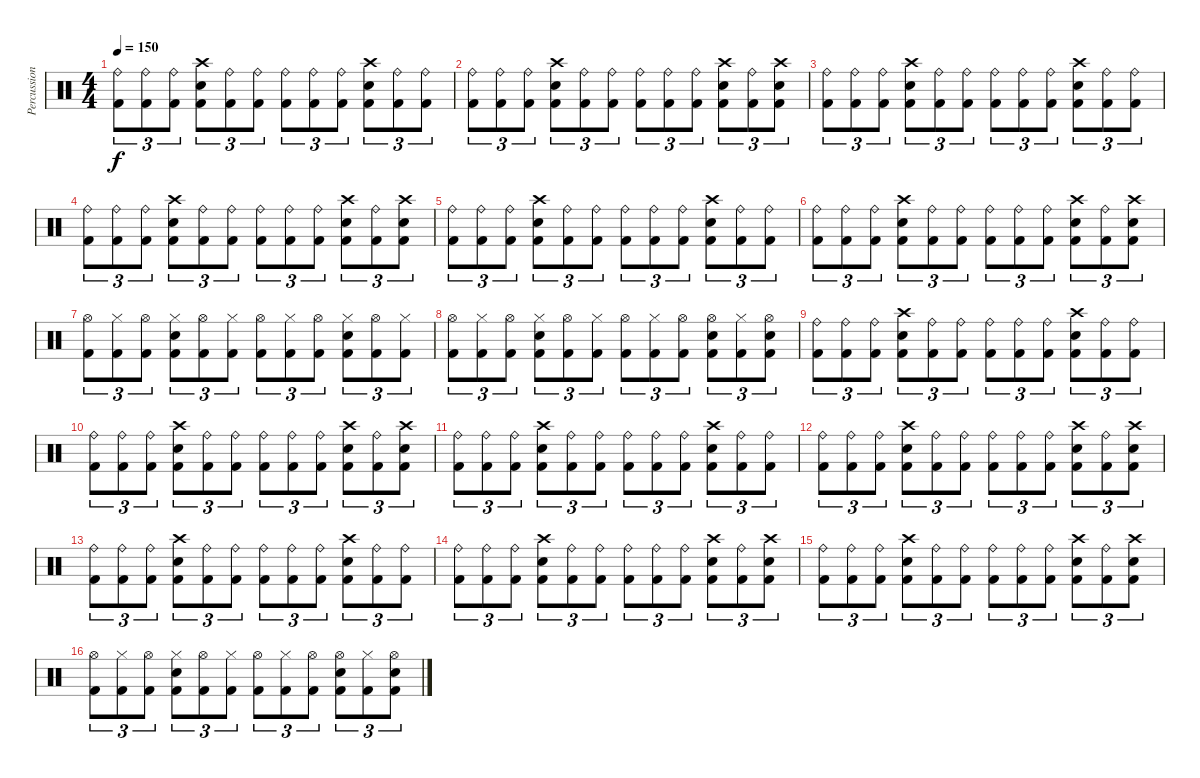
\track ("Percussion" "Percussion") {instrument percussion}
\staff {score}
\articulation defaults
\ts (4 4)
\tempo 150
\clef neutral
\ks c
("Ride (bell)" "Kick (hit) 2").8{tu (3 2) dy f} ("Ride (bell)" "Kick (hit) 2").8{tu (3 2)} ("Ride (bell)" "Kick (hit) 2").8{tu (3 2)} ("Crash high (hit)" "Electric Snare (hit)" "Kick (hit) 2").8{tu (3 2)} ("Ride (bell)" "Kick (hit) 2").8{tu (3 2)} ("Ride (bell)" "Kick (hit) 2").8{tu (3 2)} ("Ride (bell)" "Kick (hit) 2").8{tu (3 2)} ("Ride (bell)" "Kick (hit) 2").8{tu (3 2)} ("Ride (bell)" "Kick (hit) 2").8{tu (3 2)} ("Crash high (hit)" "Electric Snare (hit)" "Kick (hit) 2").8{tu (3 2)} ("Ride (bell)" "Kick (hit) 2").8{tu (3 2)} ("Ride (bell)" "Kick (hit) 2").8{tu (3 2)} |
("Ride (bell)" "Kick (hit) 2").8{tu (3 2)} ("Ride (bell)" "Kick (hit) 2").8{tu (3 2)} ("Ride (bell)" "Kick (hit) 2").8{tu (3 2)} ("Crash high (hit)" "Electric Snare (hit)" "Kick (hit) 2").8{tu (3 2)} ("Ride (bell)" "Kick (hit) 2").8{tu (3 2)} ("Ride (bell)" "Kick (hit) 2").8{tu (3 2)} ("Ride (bell)" "Kick (hit) 2").8{tu (3 2)} ("Ride (bell)" "Kick (hit) 2").8{tu (3 2)} ("Ride (bell)" "Kick (hit) 2").8{tu (3 2)} ("Crash high (hit)" "Electric Snare (hit)" "Kick (hit) 2").8{tu (3 2)} ("Ride (bell)" "Kick (hit) 2").8{tu (3 2)} ("Crash high (hit)" "Electric Snare (hit)" "Kick (hit) 2").8{tu (3 2)} |
("Ride (bell)" "Kick (hit) 2").8{tu (3 2)} ("Ride (bell)" "Kick (hit) 2").8{tu (3 2)} ("Ride (bell)" "Kick (hit) 2").8{tu (3 2)} ("Crash high (hit)" "Electric Snare (hit)" "Kick (hit) 2").8{tu (3 2)} ("Ride (bell)" "Kick (hit) 2").8{tu (3 2)} ("Ride (bell)" "Kick (hit) 2").8{tu (3 2)} ("Ride (bell)" "Kick (hit) 2").8{tu (3 2)} ("Ride (bell)" "Kick (hit) 2").8{tu (3 2)} ("Ride (bell)" "Kick (hit) 2").8{tu (3 2)} ("Crash high (hit)" "Electric Snare (hit)" "Kick (hit) 2").8{tu (3 2)} ("Ride (bell)" "Kick (hit) 2").8{tu (3 2)} ("Ride (bell)" "Kick (hit) 2").8{tu (3 2)} |
("Ride (bell)" "Kick (hit) 2").8{tu (3 2)} ("Ride (bell)" "Kick (hit) 2").8{tu (3 2)} ("Ride (bell)" "Kick (hit) 2").8{tu (3 2)} ("Crash high (hit)" "Electric Snare (hit)" "Kick (hit) 2").8{tu (3 2)} ("Ride (bell)" "Kick (hit) 2").8{tu (3 2)} ("Ride (bell)" "Kick (hit) 2").8{tu (3 2)} ("Ride (bell)" "Kick (hit) 2").8{tu (3 2)} ("Ride (bell)" "Kick (hit) 2").8{tu (3 2)} ("Ride (bell)" "Kick (hit) 2").8{tu (3 2)} ("Crash high (hit)" "Electric Snare (hit)" "Kick (hit) 2").8{tu (3 2)} ("Ride (bell)" "Kick (hit) 2").8{tu (3 2)} ("Crash high (hit)" "Electric Snare (hit)" "Kick (hit) 2").8{tu (3 2)} |
("Ride (bell)" "Kick (hit) 2").8{tu (3 2)} ("Ride (bell)" "Kick (hit) 2").8{tu (3 2)} ("Ride (bell)" "Kick (hit) 2").8{tu (3 2)} ("Crash high (hit)" "Electric Snare (hit)" "Kick (hit) 2").8{tu (3 2)} ("Ride (bell)" "Kick (hit) 2").8{tu (3 2)} ("Ride (bell)" "Kick (hit) 2").8{tu (3 2)} ("Ride (bell)" "Kick (hit) 2").8{tu (3 2)} ("Ride (bell)" "Kick (hit) 2").8{tu (3 2)} ("Ride (bell)" "Kick (hit) 2").8{tu (3 2)} ("Crash high (hit)" "Electric Snare (hit)" "Kick (hit) 2").8{tu (3 2)} ("Ride (bell)" "Kick (hit) 2").8{tu (3 2)} ("Ride (bell)" "Kick (hit) 2").8{tu (3 2)} |
("Ride (bell)" "Kick (hit) 2").8{tu (3 2)} ("Ride (bell)" "Kick (hit) 2").8{tu (3 2)} ("Ride (bell)" "Kick (hit) 2").8{tu (3 2)} ("Crash high (hit)" "Electric Snare (hit)" "Kick (hit) 2").8{tu (3 2)} ("Ride (bell)" "Kick (hit) 2").8{tu (3 2)} ("Ride (bell)" "Kick (hit) 2").8{tu (3 2)} ("Ride (bell)" "Kick (hit) 2").8{tu (3 2)} ("Ride (bell)" "Kick (hit) 2").8{tu (3 2)} ("Ride (bell)" "Kick (hit) 2").8{tu (3 2)} ("Crash high (hit)" "Electric Snare (hit)" "Kick (hit) 2").8{tu (3 2)} ("Ride (bell)" "Kick (hit) 2").8{tu (3 2)} ("Crash high (hit)" "Electric Snare (hit)" "Kick (hit) 2").8{tu (3 2)} |
("Hi-Hat (open)" "Kick (hit) 2").8{tu (3 2)} ("Hi-Hat (closed)" "Kick (hit) 2").8{tu (3 2)} ("Hi-Hat (open)" "Kick (hit) 2").8{tu (3 2)} ("Hi-Hat (closed)" "Electric Snare (hit)" "Kick (hit) 2").8{tu (3 2)} ("Hi-Hat (open)" "Kick (hit) 2").8{tu (3 2)} ("Hi-Hat (closed)" "Kick (hit) 2").8{tu (3 2)} ("Hi-Hat (open)" "Kick (hit) 2").8{tu (3 2)} ("Hi-Hat (closed)" "Kick (hit) 2").8{tu (3 2)} ("Hi-Hat (open)" "Kick (hit) 2").8{tu (3 2)} ("Hi-Hat (closed)" "Electric Snare (hit)" "Kick (hit) 2").8{tu (3 2)} ("Hi-Hat (open)" "Kick (hit) 2").8{tu (3 2)} ("Hi-Hat (closed)" "Kick (hit) 2").8{tu (3 2)} |
("Hi-Hat (open)" "Kick (hit) 2").8{tu (3 2)} ("Hi-Hat (closed)" "Kick (hit) 2").8{tu (3 2)} ("Hi-Hat (open)" "Kick (hit) 2").8{tu (3 2)} ("Hi-Hat (closed)" "Electric Snare (hit)" "Kick (hit) 2").8{tu (3 2)} ("Hi-Hat (open)" "Kick (hit) 2").8{tu (3 2)} ("Hi-Hat (closed)" "Kick (hit) 2").8{tu (3 2)} ("Hi-Hat (open)" "Kick (hit) 2").8{tu (3 2)} ("Hi-Hat (closed)" "Kick (hit) 2").8{tu (3 2)} ("Hi-Hat (open)" "Kick (hit) 2").8{tu (3 2)} ("Hi-Hat (open)" "Electric Snare (hit)" "Kick (hit) 2").8{tu (3 2)} ("Hi-Hat (closed)" "Kick (hit) 2").8{tu (3 2)} ("Hi-Hat (open)" "Electric Snare (hit)" "Kick (hit) 2").8{tu (3 2)} |
("Ride (bell)" "Kick (hit) 2").8{tu (3 2)} ("Ride (bell)" "Kick (hit) 2").8{tu (3 2)} ("Ride (bell)" "Kick (hit) 2").8{tu (3 2)} ("Crash high (hit)" "Electric Snare (hit)" "Kick (hit) 2").8{tu (3 2)} ("Ride (bell)" "Kick (hit) 2").8{tu (3 2)} ("Ride (bell)" "Kick (hit) 2").8{tu (3 2)} ("Ride (bell)" "Kick (hit) 2").8{tu (3 2)} ("Ride (bell)" "Kick (hit) 2").8{tu (3 2)} ("Ride (bell)" "Kick (hit) 2").8{tu (3 2)} ("Crash high (hit)" "Electric Snare (hit)" "Kick (hit) 2").8{tu (3 2)} ("Ride (bell)" "Kick (hit) 2").8{tu (3 2)} ("Ride (bell)" "Kick (hit) 2").8{tu (3 2)} |
("Ride (bell)" "Kick (hit) 2").8{tu (3 2)} ("Ride (bell)" "Kick (hit) 2").8{tu (3 2)} ("Ride (bell)" "Kick (hit) 2").8{tu (3 2)} ("Crash high (hit)" "Electric Snare (hit)" "Kick (hit) 2").8{tu (3 2)} ("Ride (bell)" "Kick (hit) 2").8{tu (3 2)} ("Ride (bell)" "Kick (hit) 2").8{tu (3 2)} ("Ride (bell)" "Kick (hit) 2").8{tu (3 2)} ("Ride (bell)" "Kick (hit) 2").8{tu (3 2)} ("Ride (bell)" "Kick (hit) 2").8{tu (3 2)} ("Crash high (hit)" "Electric Snare (hit)" "Kick (hit) 2").8{tu (3 2)} ("Ride (bell)" "Kick (hit) 2").8{tu (3 2)} ("Crash high (hit)" "Electric Snare (hit)" "Kick (hit) 2").8{tu (3 2)} |
("Ride (bell)" "Kick (hit) 2").8{tu (3 2)} ("Ride (bell)" "Kick (hit) 2").8{tu (3 2)} ("Ride (bell)" "Kick (hit) 2").8{tu (3 2)} ("Crash high (hit)" "Electric Snare (hit)" "Kick (hit) 2").8{tu (3 2)} ("Ride (bell)" "Kick (hit) 2").8{tu (3 2)} ("Ride (bell)" "Kick (hit) 2").8{tu (3 2)} ("Ride (bell)" "Kick (hit) 2").8{tu (3 2)} ("Ride (bell)" "Kick (hit) 2").8{tu (3 2)} ("Ride (bell)" "Kick (hit) 2").8{tu (3 2)} ("Crash high (hit)" "Electric Snare (hit)" "Kick (hit) 2").8{tu (3 2)} ("Ride (bell)" "Kick (hit) 2").8{tu (3 2)} ("Ride (bell)" "Kick (hit) 2").8{tu (3 2)} |
("Ride (bell)" "Kick (hit) 2").8{tu (3 2)} ("Ride (bell)" "Kick (hit) 2").8{tu (3 2)} ("Ride (bell)" "Kick (hit) 2").8{tu (3 2)} ("Crash high (hit)" "Electric Snare (hit)" "Kick (hit) 2").8{tu (3 2)} ("Ride (bell)" "Kick (hit) 2").8{tu (3 2)} ("Ride (bell)" "Kick (hit) 2").8{tu (3 2)} ("Ride (bell)" "Kick (hit) 2").8{tu (3 2)} ("Ride (bell)" "Kick (hit) 2").8{tu (3 2)} ("Ride (bell)" "Kick (hit) 2").8{tu (3 2)} ("Crash high (hit)" "Electric Snare (hit)" "Kick (hit) 2").8{tu (3 2)} ("Ride (bell)" "Kick (hit) 2").8{tu (3 2)} ("Crash high (hit)" "Electric Snare (hit)" "Kick (hit) 2").8{tu (3 2)} |
("Ride (bell)" "Kick (hit) 2").8{tu (3 2)} ("Ride (bell)" "Kick (hit) 2").8{tu (3 2)} ("Ride (bell)" "Kick (hit) 2").8{tu (3 2)} ("Crash high (hit)" "Electric Snare (hit)" "Kick (hit) 2").8{tu (3 2)} ("Ride (bell)" "Kick (hit) 2").8{tu (3 2)} ("Ride (bell)" "Kick (hit) 2").8{tu (3 2)} ("Ride (bell)" "Kick (hit) 2").8{tu (3 2)} ("Ride (bell)" "Kick (hit) 2").8{tu (3 2)} ("Ride (bell)" "Kick (hit) 2").8{tu (3 2)} ("Crash high (hit)" "Electric Snare (hit)" "Kick (hit) 2").8{tu (3 2)} ("Ride (bell)" "Kick (hit) 2").8{tu (3 2)} ("Ride (bell)" "Kick (hit) 2").8{tu (3 2)} |
("Ride (bell)" "Kick (hit) 2").8{tu (3 2)} ("Ride (bell)" "Kick (hit) 2").8{tu (3 2)} ("Ride (bell)" "Kick (hit) 2").8{tu (3 2)} ("Crash high (hit)" "Electric Snare (hit)" "Kick (hit) 2").8{tu (3 2)} ("Ride (bell)" "Kick (hit) 2").8{tu (3 2)} ("Ride (bell)" "Kick (hit) 2").8{tu (3 2)} ("Ride (bell)" "Kick (hit) 2").8{tu (3 2)} ("Ride (bell)" "Kick (hit) 2").8{tu (3 2)} ("Ride (bell)" "Kick (hit) 2").8{tu (3 2)} ("Crash high (hit)" "Electric Snare (hit)" "Kick (hit) 2").8{tu (3 2)} ("Ride (bell)" "Kick (hit) 2").8{tu (3 2)} ("Crash high (hit)" "Electric Snare (hit)" "Kick (hit) 2").8{tu (3 2)} |
("Ride (bell)" "Kick (hit) 2").8{tu (3 2)} ("Ride (bell)" "Kick (hit) 2").8{tu (3 2)} ("Ride (bell)" "Kick (hit) 2").8{tu (3 2)} ("Crash high (hit)" "Electric Snare (hit)" "Kick (hit) 2").8{tu (3 2)} ("Ride (bell)" "Kick (hit) 2").8{tu (3 2)} ("Ride (bell)" "Kick (hit) 2").8{tu (3 2)} ("Ride (bell)" "Kick (hit) 2").8{tu (3 2)} ("Ride (bell)" "Kick (hit) 2").8{tu (3 2)} ("Ride (bell)" "Kick (hit) 2").8{tu (3 2)} ("Crash high (hit)" "Electric Snare (hit)" "Kick (hit) 2").8{tu (3 2)} ("Ride (bell)" "Kick (hit) 2").8{tu (3 2)} ("Crash high (hit)" "Electric Snare (hit)" "Kick (hit) 2").8{tu (3 2)} |
("Hi-Hat (open)" "Kick (hit) 2").8{tu (3 2)} ("Hi-Hat (closed)" "Kick (hit) 2").8{tu (3 2)} ("Hi-Hat (open)" "Kick (hit) 2").8{tu (3 2)} ("Hi-Hat (closed)" "Electric Snare (hit)" "Kick (hit) 2").8{tu (3 2)} ("Hi-Hat (open)" "Kick (hit) 2").8{tu (3 2)} ("Hi-Hat (closed)" "Kick (hit) 2").8{tu (3 2)} ("Hi-Hat (open)" "Kick (hit) 2").8{tu (3 2)} ("Hi-Hat (closed)" "Kick (hit) 2").8{tu (3 2)} ("Hi-Hat (open)" "Kick (hit) 2").8{tu (3 2)} ("Hi-Hat (open)" "Electric Snare (hit)" "Kick (hit) 2").8{tu (3 2)} ("Hi-Hat (closed)" "Kick (hit) 2").8{tu (3 2)} ("Hi-Hat (open)" "Electric Snare (hit)" "Kick (hit) 2").8{tu (3 2)}
